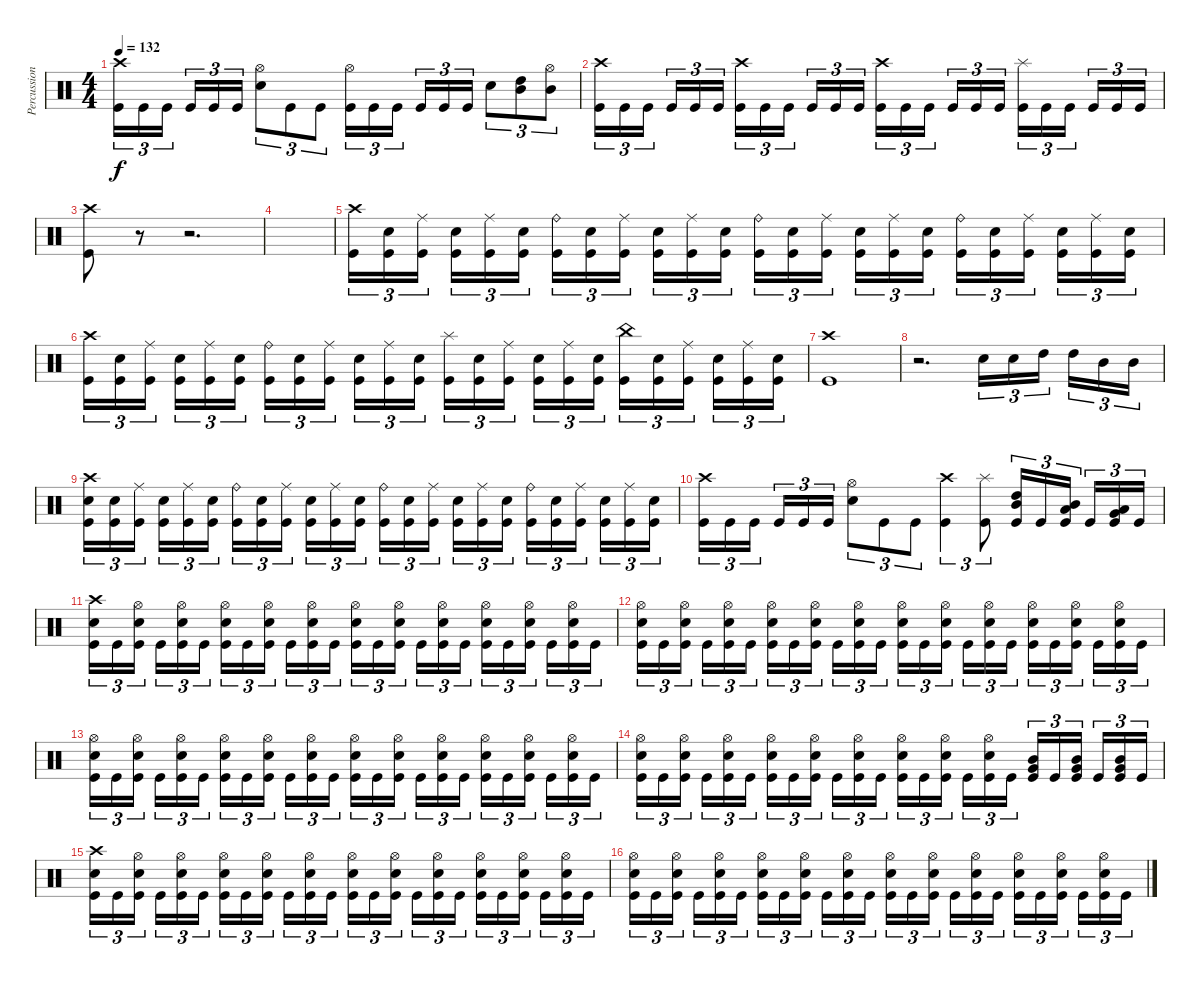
\track ("Percussion" "Percussion") {instrument percussion}
\staff {score}
\articulation defaults
\ts (4 4)
\tempo 132
\clef neutral
\ks c
("Kick (hit)" "Crash high (hit)").16{tu (3 2) dy f} "Kick (hit)".16{tu (3 2)} "Kick (hit)".16{tu (3 2) beam splitsecondary} "Kick (hit)".16{tu (3 2)} "Kick (hit)".16{tu (3 2)} "Kick (hit)".16{tu (3 2)} ("Electric Snare (hit)" "Hi-Hat (open)").8{tu (3 2)} "Kick (hit)".8{tu (3 2)} "Kick (hit)".8{tu (3 2)} ("Kick (hit)" "Hi-Hat (open)").16{tu (3 2)} "Kick (hit)".16{tu (3 2)} "Kick (hit)".16{tu (3 2) beam splitsecondary} "Kick (hit)".16{tu (3 2)} "Kick (hit)".16{tu (3 2)} "Kick (hit)".16{tu (3 2)} "Electric Snare (hit)".8{tu (3 2)} ("Mid Tom (hit)" "High Tom (hit)").8{tu (3 2)} ("Mid Tom (hit)" "Hi-Hat (open)").8{tu (3 2)} |
("Kick (hit)" "Crash high (hit)").16{tu (3 2)} "Kick (hit)".16{tu (3 2)} "Kick (hit)".16{tu (3 2) beam splitsecondary} "Kick (hit)".16{tu (3 2)} "Kick (hit)".16{tu (3 2)} "Kick (hit)".16{tu (3 2)} ("Kick (hit)" "Crash high (hit)").16{tu (3 2)} "Kick (hit)".16{tu (3 2)} "Kick (hit)".16{tu (3 2) beam splitsecondary} "Kick (hit)".16{tu (3 2)} "Kick (hit)".16{tu (3 2)} "Kick (hit)".16{tu (3 2)} ("Kick (hit)" "Crash high (hit)").16{tu (3 2)} "Kick (hit)".16{tu (3 2)} "Kick (hit)".16{tu (3 2) beam splitsecondary} "Kick (hit)".16{tu (3 2)} "Kick (hit)".16{tu (3 2)} "Kick (hit)".16{tu (3 2)} ("Kick (hit)" "Splash (hit)").16{tu (3 2)} "Kick (hit)".16{tu (3 2)} "Kick (hit)".16{tu (3 2) beam splitsecondary} "Kick (hit)".16{tu (3 2)} "Kick (hit)".16{tu (3 2)} "Kick (hit)".16{tu (3 2)} |
("Crash high (hit)" "Kick (hit)").8 r.8 r.2{d} |
|
("Crash high (hit)" "Kick (hit)").16{tu (3 2)} ("Electric Snare (hit)" "Kick (hit)").16{tu (3 2)} ("Ride (middle)" "Kick (hit)").16{tu (3 2) beam splitsecondary} ("Electric Snare (hit)" "Kick (hit)").16{tu (3 2)} ("Ride (middle)" "Kick (hit)").16{tu (3 2)} ("Electric Snare (hit)" "Kick (hit)").16{tu (3 2)} ("Ride (bell)" "Kick (hit)").16{tu (3 2)} ("Electric Snare (hit)" "Kick (hit)").16{tu (3 2)} ("Ride (middle)" "Kick (hit)").16{tu (3 2) beam splitsecondary} ("Electric Snare (hit)" "Kick (hit)").16{tu (3 2)} ("Ride (middle)" "Kick (hit)").16{tu (3 2)} ("Electric Snare (hit)" "Kick (hit)").16{tu (3 2)} ("Ride (bell)" "Kick (hit)").16{tu (3 2)} ("Electric Snare (hit)" "Kick (hit)").16{tu (3 2)} ("Ride (middle)" "Kick (hit)").16{tu (3 2) beam splitsecondary} ("Electric Snare (hit)" "Kick (hit)").16{tu (3 2)} ("Ride (middle)" "Kick (hit)").16{tu (3 2)} ("Electric Snare (hit)" "Kick (hit)").16{tu (3 2)} ("Ride (bell)" "Kick (hit)").16{tu (3 2)} ("Electric Snare (hit)" "Kick (hit)").16{tu (3 2)} ("Ride (middle)" "Kick (hit)").16{tu (3 2) beam splitsecondary} ("Electric Snare (hit)" "Kick (hit)").16{tu (3 2)} ("Ride (middle)" "Kick (hit)").16{tu (3 2)} ("Electric Snare (hit)" "Kick (hit)").16{tu (3 2)} |
("Crash high (hit)" "Kick (hit)").16{tu (3 2)} ("Electric Snare (hit)" "Kick (hit)").16{tu (3 2)} ("Ride (middle)" "Kick (hit)").16{tu (3 2) beam splitsecondary} ("Electric Snare (hit)" "Kick (hit)").16{tu (3 2)} ("Ride (middle)" "Kick (hit)").16{tu (3 2)} ("Electric Snare (hit)" "Kick (hit)").16{tu (3 2)} ("Ride (bell)" "Kick (hit)").16{tu (3 2)} ("Electric Snare (hit)" "Kick (hit)").16{tu (3 2)} ("Ride (middle)" "Kick (hit)").16{tu (3 2) beam splitsecondary} ("Electric Snare (hit)" "Kick (hit)").16{tu (3 2)} ("Ride (middle)" "Kick (hit)").16{tu (3 2)} ("Electric Snare (hit)" "Kick (hit)").16{tu (3 2)} ("Splash (hit)" "Kick (hit)").16{tu (3 2)} ("Electric Snare (hit)" "Kick (hit)").16{tu (3 2)} ("Ride (middle)" "Kick (hit)").16{tu (3 2) beam splitsecondary} ("Electric Snare (hit)" "Kick (hit)").16{tu (3 2)} ("Ride (middle)" "Kick (hit)").16{tu (3 2)} ("Electric Snare (hit)" "Kick (hit)").16{tu (3 2)} ("China (hit)" "Kick (hit)").16{tu (3 2)} ("Electric Snare (hit)" "Kick (hit)").16{tu (3 2)} ("Ride (middle)" "Kick (hit)").16{tu (3 2) beam splitsecondary} ("Electric Snare (hit)" "Kick (hit)").16{tu (3 2)} ("Ride (middle)" "Kick (hit)").16{tu (3 2)} ("Electric Snare (hit)" "Kick (hit)").16{tu (3 2)} |
("Crash high (hit)" "Kick (hit)").1 |
r.2{d} "Electric Snare (hit)".16{tu (3 2)} "Electric Snare (hit)".16{tu (3 2)} "High Tom (hit)".16{tu (3 2) beam splitsecondary} "High Tom (hit)".16{tu (3 2)} "Mid Tom (hit)".16{tu (3 2)} "Mid Tom (hit)".16{tu (3 2)} |
("Crash high (hit)" "Kick (hit)" "Snare (hit)").16{tu (3 2)} ("Electric Snare (hit)" "Kick (hit)").16{tu (3 2)} ("Ride (middle)" "Kick (hit)").16{tu (3 2) beam splitsecondary} ("Electric Snare (hit)" "Kick (hit)").16{tu (3 2)} ("Ride (middle)" "Kick (hit)").16{tu (3 2)} ("Electric Snare (hit)" "Kick (hit)").16{tu (3 2)} ("Ride (bell)" "Kick (hit)").16{tu (3 2)} ("Electric Snare (hit)" "Kick (hit)").16{tu (3 2)} ("Ride (middle)" "Kick (hit)").16{tu (3 2) beam splitsecondary} ("Electric Snare (hit)" "Kick (hit)").16{tu (3 2)} ("Ride (middle)" "Kick (hit)").16{tu (3 2)} ("Electric Snare (hit)" "Kick (hit)").16{tu (3 2)} ("Ride (bell)" "Kick (hit)").16{tu (3 2)} ("Electric Snare (hit)" "Kick (hit)").16{tu (3 2)} ("Ride (middle)" "Kick (hit)").16{tu (3 2) beam splitsecondary} ("Electric Snare (hit)" "Kick (hit)").16{tu (3 2)} ("Ride (middle)" "Kick (hit)").16{tu (3 2)} ("Electric Snare (hit)" "Kick (hit)").16{tu (3 2)} ("Ride (bell)" "Kick (hit)").16{tu (3 2)} ("Electric Snare (hit)" "Kick (hit)").16{tu (3 2)} ("Ride (middle)" "Kick (hit)").16{tu (3 2) beam splitsecondary} ("Electric Snare (hit)" "Kick (hit)").16{tu (3 2)} ("Ride (middle)" "Kick (hit)").16{tu (3 2)} ("Electric Snare (hit)" "Kick (hit)").16{tu (3 2)} |
("Kick (hit)" "Crash high (hit)").16{tu (3 2)} "Kick (hit)".16{tu (3 2)} "Kick (hit)".16{tu (3 2) beam splitsecondary} "Kick (hit)".16{tu (3 2)} "Kick (hit)".16{tu (3 2)} "Kick (hit)".16{tu (3 2)} ("Electric Snare (hit)" "Hi-Hat (open)").8{tu (3 2)} "Kick (hit)".8{tu (3 2)} "Kick (hit)".8{tu (3 2)} ("Kick (hit)" "Crash high (hit)").4{tu (3 2)} ("Kick (hit)" "Splash (hit)").8{tu (3 2)} ("High Tom (hit)" "Mid Tom (hit)" "Kick (hit)").16{tu (3 2)} "Kick (hit)".16{tu (3 2)} ("Mid Tom (hit)" "Low Tom (hit)" "Kick (hit)").16{tu (3 2) beam splitsecondary} "Kick (hit)".16{tu (3 2)} ("Low Tom (hit)" "Very Low Tom (hit)" "Kick (hit)").16{tu (3 2)} "Kick (hit)".16{tu (3 2)} |
("Electric Snare (hit)" "Kick (hit)" "Crash high (hit)").16{tu (3 2)} "Kick (hit)".16{tu (3 2)} ("Electric Snare (hit)" "Kick (hit)" "Hi-Hat (open)").16{tu (3 2) beam splitsecondary} "Kick (hit)".16{tu (3 2)} ("Electric Snare (hit)" "Kick (hit)" "Hi-Hat (open)").16{tu (3 2)} "Kick (hit)".16{tu (3 2)} ("Electric Snare (hit)" "Kick (hit)" "Hi-Hat (open)").16{tu (3 2)} "Kick (hit)".16{tu (3 2)} ("Electric Snare (hit)" "Kick (hit)" "Hi-Hat (open)").16{tu (3 2) beam splitsecondary} "Kick (hit)".16{tu (3 2)} ("Electric Snare (hit)" "Kick (hit)" "Hi-Hat (open)").16{tu (3 2)} "Kick (hit)".16{tu (3 2)} ("Electric Snare (hit)" "Kick (hit)" "Hi-Hat (open)").16{tu (3 2)} "Kick (hit)".16{tu (3 2)} ("Electric Snare (hit)" "Kick (hit)" "Hi-Hat (open)").16{tu (3 2) beam splitsecondary} "Kick (hit)".16{tu (3 2)} ("Electric Snare (hit)" "Kick (hit)" "Hi-Hat (open)").16{tu (3 2)} "Kick (hit)".16{tu (3 2)} ("Electric Snare (hit)" "Kick (hit)" "Hi-Hat (open)").16{tu (3 2)} "Kick (hit)".16{tu (3 2)} ("Electric Snare (hit)" "Kick (hit)" "Hi-Hat (open)").16{tu (3 2) beam splitsecondary} "Kick (hit)".16{tu (3 2)} ("Electric Snare (hit)" "Kick (hit)" "Hi-Hat (open)").16{tu (3 2)} "Kick (hit)".16{tu (3 2)} |
("Electric Snare (hit)" "Kick (hit)" "Hi-Hat (open)").16{tu (3 2)} "Kick (hit)".16{tu (3 2)} ("Electric Snare (hit)" "Kick (hit)" "Hi-Hat (open)").16{tu (3 2) beam splitsecondary} "Kick (hit)".16{tu (3 2)} ("Electric Snare (hit)" "Kick (hit)" "Hi-Hat (open)").16{tu (3 2)} "Kick (hit)".16{tu (3 2)} ("Electric Snare (hit)" "Kick (hit)" "Hi-Hat (open)").16{tu (3 2)} "Kick (hit)".16{tu (3 2)} ("Electric Snare (hit)" "Kick (hit)" "Hi-Hat (open)").16{tu (3 2) beam splitsecondary} "Kick (hit)".16{tu (3 2)} ("Electric Snare (hit)" "Kick (hit)" "Hi-Hat (open)").16{tu (3 2)} "Kick (hit)".16{tu (3 2)} ("Electric Snare (hit)" "Kick (hit)" "Hi-Hat (open)").16{tu (3 2)} "Kick (hit)".16{tu (3 2)} ("Electric Snare (hit)" "Kick (hit)" "Hi-Hat (open)").16{tu (3 2) beam splitsecondary} "Kick (hit)".16{tu (3 2)} ("Electric Snare (hit)" "Kick (hit)" "Hi-Hat (open)").16{tu (3 2)} "Kick (hit)".16{tu (3 2)} ("Electric Snare (hit)" "Kick (hit)" "Hi-Hat (open)").16{tu (3 2)} "Kick (hit)".16{tu (3 2)} ("Electric Snare (hit)" "Kick (hit)" "Hi-Hat (open)").16{tu (3 2) beam splitsecondary} "Kick (hit)".16{tu (3 2)} ("Electric Snare (hit)" "Kick (hit)" "Hi-Hat (open)").16{tu (3 2)} "Kick (hit)".16{tu (3 2)} |
("Electric Snare (hit)" "Kick (hit)" "Hi-Hat (open)").16{tu (3 2)} "Kick (hit)".16{tu (3 2)} ("Electric Snare (hit)" "Kick (hit)" "Hi-Hat (open)").16{tu (3 2) beam splitsecondary} "Kick (hit)".16{tu (3 2)} ("Electric Snare (hit)" "Kick (hit)" "Hi-Hat (open)").16{tu (3 2)} "Kick (hit)".16{tu (3 2)} ("Electric Snare (hit)" "Kick (hit)" "Hi-Hat (open)").16{tu (3 2)} "Kick (hit)".16{tu (3 2)} ("Electric Snare (hit)" "Kick (hit)" "Hi-Hat (open)").16{tu (3 2) beam splitsecondary} "Kick (hit)".16{tu (3 2)} ("Electric Snare (hit)" "Kick (hit)" "Hi-Hat (open)").16{tu (3 2)} "Kick (hit)".16{tu (3 2)} ("Electric Snare (hit)" "Kick (hit)" "Hi-Hat (open)").16{tu (3 2)} "Kick (hit)".16{tu (3 2)} ("Electric Snare (hit)" "Kick (hit)" "Hi-Hat (open)").16{tu (3 2) beam splitsecondary} "Kick (hit)".16{tu (3 2)} ("Electric Snare (hit)" "Kick (hit)" "Hi-Hat (open)").16{tu (3 2)} "Kick (hit)".16{tu (3 2)} ("Electric Snare (hit)" "Kick (hit)" "Hi-Hat (open)").16{tu (3 2)} "Kick (hit)".16{tu (3 2)} ("Electric Snare (hit)" "Kick (hit)" "Hi-Hat (open)").16{tu (3 2) beam splitsecondary} "Kick (hit)".16{tu (3 2)} ("Electric Snare (hit)" "Kick (hit)" "Hi-Hat (open)").16{tu (3 2)} "Kick (hit)".16{tu (3 2)} |
("Electric Snare (hit)" "Kick (hit)" "Hi-Hat (open)").16{tu (3 2)} "Kick (hit)".16{tu (3 2)} ("Electric Snare (hit)" "Kick (hit)" "Hi-Hat (open)").16{tu (3 2) beam splitsecondary} "Kick (hit)".16{tu (3 2)} ("Electric Snare (hit)" "Kick (hit)" "Hi-Hat (open)").16{tu (3 2)} "Kick (hit)".16{tu (3 2)} ("Electric Snare (hit)" "Kick (hit)" "Hi-Hat (open)").16{tu (3 2)} "Kick (hit)".16{tu (3 2)} ("Electric Snare (hit)" "Kick (hit)" "Hi-Hat (open)").16{tu (3 2) beam splitsecondary} "Kick (hit)".16{tu (3 2)} ("Electric Snare (hit)" "Kick (hit)" "Hi-Hat (open)").16{tu (3 2)} "Kick (hit)".16{tu (3 2)} ("Electric Snare (hit)" "Kick (hit)" "Hi-Hat (open)").16{tu (3 2)} "Kick (hit)".16{tu (3 2)} ("Electric Snare (hit)" "Kick (hit)" "Hi-Hat (open)").16{tu (3 2) beam splitsecondary} "Kick (hit)".16{tu (3 2)} ("Electric Snare (hit)" "Kick (hit)" "Hi-Hat (open)").16{tu (3 2)} "Kick (hit)".16{tu (3 2)} ("Mid Tom (hit)" "Very Low Tom (hit)" "Kick (hit)").16{tu (3 2)} "Kick (hit)".16{tu (3 2)} ("Mid Tom (hit)" "Very Low Tom (hit)" "Kick (hit)").16{tu (3 2) beam splitsecondary} "Kick (hit)".16{tu (3 2)} ("Mid Tom (hit)" "Very Low Tom (hit)" "Kick (hit)").16{tu (3 2)} "Kick (hit)".16{tu (3 2)} |
("Electric Snare (hit)" "Kick (hit)" "Crash high (hit)").16{tu (3 2)} "Kick (hit)".16{tu (3 2)} ("Electric Snare (hit)" "Kick (hit)" "Hi-Hat (open)").16{tu (3 2) beam splitsecondary} "Kick (hit)".16{tu (3 2)} ("Electric Snare (hit)" "Kick (hit)" "Hi-Hat (open)").16{tu (3 2)} "Kick (hit)".16{tu (3 2)} ("Electric Snare (hit)" "Kick (hit)" "Hi-Hat (open)").16{tu (3 2)} "Kick (hit)".16{tu (3 2)} ("Electric Snare (hit)" "Kick (hit)" "Hi-Hat (open)").16{tu (3 2) beam splitsecondary} "Kick (hit)".16{tu (3 2)} ("Electric Snare (hit)" "Kick (hit)" "Hi-Hat (open)").16{tu (3 2)} "Kick (hit)".16{tu (3 2)} ("Electric Snare (hit)" "Kick (hit)" "Hi-Hat (open)").16{tu (3 2)} "Kick (hit)".16{tu (3 2)} ("Electric Snare (hit)" "Kick (hit)" "Hi-Hat (open)").16{tu (3 2) beam splitsecondary} "Kick (hit)".16{tu (3 2)} ("Electric Snare (hit)" "Kick (hit)" "Hi-Hat (open)").16{tu (3 2)} "Kick (hit)".16{tu (3 2)} ("Electric Snare (hit)" "Kick (hit)" "Hi-Hat (open)").16{tu (3 2)} "Kick (hit)".16{tu (3 2)} ("Electric Snare (hit)" "Kick (hit)" "Hi-Hat (open)").16{tu (3 2) beam splitsecondary} "Kick (hit)".16{tu (3 2)} ("Electric Snare (hit)" "Kick (hit)" "Hi-Hat (open)").16{tu (3 2)} "Kick (hit)".16{tu (3 2)} |
("Electric Snare (hit)" "Kick (hit)" "Hi-Hat (open)").16{tu (3 2)} "Kick (hit)".16{tu (3 2)} ("Electric Snare (hit)" "Kick (hit)" "Hi-Hat (open)").16{tu (3 2) beam splitsecondary} "Kick (hit)".16{tu (3 2)} ("Electric Snare (hit)" "Kick (hit)" "Hi-Hat (open)").16{tu (3 2)} "Kick (hit)".16{tu (3 2)} ("Electric Snare (hit)" "Kick (hit)" "Hi-Hat (open)").16{tu (3 2)} "Kick (hit)".16{tu (3 2)} ("Electric Snare (hit)" "Kick (hit)" "Hi-Hat (open)").16{tu (3 2) beam splitsecondary} "Kick (hit)".16{tu (3 2)} ("Electric Snare (hit)" "Kick (hit)" "Hi-Hat (open)").16{tu (3 2)} "Kick (hit)".16{tu (3 2)} ("Electric Snare (hit)" "Kick (hit)" "Hi-Hat (open)").16{tu (3 2)} "Kick (hit)".16{tu (3 2)} ("Electric Snare (hit)" "Kick (hit)" "Hi-Hat (open)").16{tu (3 2) beam splitsecondary} "Kick (hit)".16{tu (3 2)} ("Electric Snare (hit)" "Kick (hit)" "Hi-Hat (open)").16{tu (3 2)} "Kick (hit)".16{tu (3 2)} ("Electric Snare (hit)" "Kick (hit)" "Hi-Hat (open)").16{tu (3 2)} "Kick (hit)".16{tu (3 2)} ("Electric Snare (hit)" "Kick (hit)" "Hi-Hat (open)").16{tu (3 2) beam splitsecondary} "Kick (hit)".16{tu (3 2)} ("Electric Snare (hit)" "Kick (hit)" "Hi-Hat (open)").16{tu (3 2)} "Kick (hit)".16{tu (3 2)}
